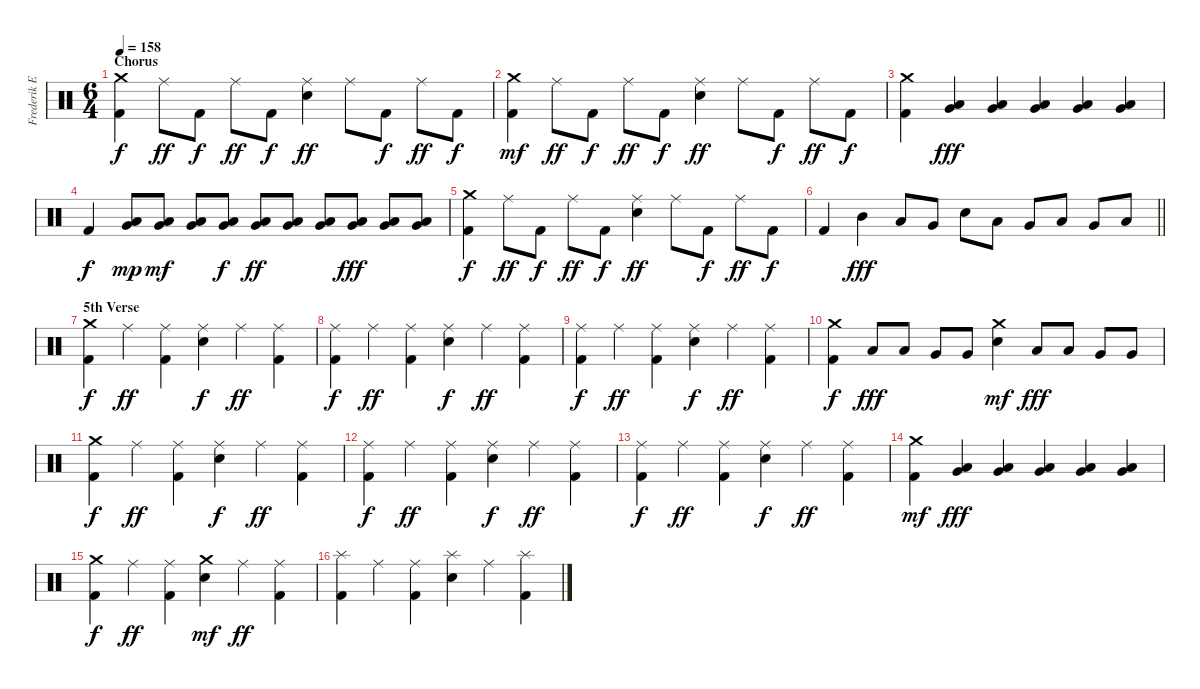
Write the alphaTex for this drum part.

\track ("Frederik Ehmke" "Frederik E") {instrument percussion}
\staff {score}
\articulation defaults
\ts (6 4)
\section ("" "Chorus")
\tempo 158
\clef neutral
\ks c
("Crash medium (hit)" "Kick (hit) 2").4{dy f} "Ride (middle)".8{dy ff} "Kick (hit) 2".8{dy f} "Ride (middle)".8{dy ff} "Kick (hit) 2".8{dy f} ("Ride (middle)" "Electric Snare (hit)").4{dy ff} "Ride (middle)".8 "Kick (hit) 2".8{dy f} "Ride (middle)".8{dy ff} "Kick (hit) 2".8{dy f} |
("Crash medium (hit)" "Kick (hit) 2").4{dy mf} "Ride (middle)".8{dy ff} "Kick (hit) 2".8{dy f} "Ride (middle)".8{dy ff} "Kick (hit) 2".8{dy f} ("Ride (middle)" "Electric Snare (hit)").4{dy ff} "Ride (middle)".8 "Kick (hit) 2".8{dy f} "Ride (middle)".8{dy ff} "Kick (hit) 2".8{dy f} |
("Crash medium (hit)" "Kick (hit) 2").4 ("Low Tom (hit)" "Very Low Tom (hit)").4{dy fff} ("Low Tom (hit)" "Very Low Tom (hit)").4 ("Low Tom (hit)" "Very Low Tom (hit)").4 ("Low Tom (hit)" "Very Low Tom (hit)").4 ("Low Tom (hit)" "Very Low Tom (hit)").4 |
"Kick (hit) 2".4{dy f} ("Low Tom (hit)" "Very Low Tom (hit)").8{dy mp} ("Low Tom (hit)" "Very Low Tom (hit)").8{dy mf} ("Low Tom (hit)" "Very Low Tom (hit)").8 ("Low Tom (hit)" "Very Low Tom (hit)").8{dy f} ("Low Tom (hit)" "Very Low Tom (hit)").8{dy ff} ("Low Tom (hit)" "Very Low Tom (hit)").8 ("Low Tom (hit)" "Very Low Tom (hit)").8 ("Low Tom (hit)" "Very Low Tom (hit)").8{dy fff} ("Low Tom (hit)" "Very Low Tom (hit)").8 ("Low Tom (hit)" "Very Low Tom (hit)").8 |
("Crash medium (hit)" "Kick (hit) 2").4{dy f} "Ride (middle)".8{dy ff} "Kick (hit) 2".8{dy f} "Ride (middle)".8{dy ff} "Kick (hit) 2".8{dy f} ("Ride (middle)" "Electric Snare (hit)").4{dy ff} "Ride (middle)".8 "Kick (hit) 2".8{dy f} "Ride (middle)".8{dy ff} "Kick (hit) 2".8{dy f} |
\barLineRight lightlight "Kick (hit) 2".4 "Mid Tom (hit)".4{dy fff} "Low Tom (hit)".8 "Very Low Tom (hit)".8 "Electric Snare (hit)".8 "Low Tom (hit)".8 "Very Low Tom (hit)".8 "Low Tom (hit)".8 "Very Low Tom (hit)".8 "Low Floor Tom (hit)".8
|
\section ("" "5th Verse")
("Crash medium (hit)" "Kick (hit) 2").4{dy f} "Ride (middle)".4{dy ff} ("Ride (middle)" "Kick (hit) 2").4 ("Ride (middle)" "Electric Snare (hit)").4{dy f} "Ride (middle)".4{dy ff} ("Ride (middle)" "Kick (hit) 2").4 |
("Ride (middle)" "Kick (hit) 2").4{dy f} "Ride (middle)".4{dy ff} ("Ride (middle)" "Kick (hit) 2").4 ("Ride (middle)" "Electric Snare (hit)").4{dy f} "Ride (middle)".4{dy ff} ("Ride (middle)" "Kick (hit) 2").4 |
("Ride (middle)" "Kick (hit) 2").4{dy f} "Ride (middle)".4{dy ff} ("Ride (middle)" "Kick (hit) 2").4 ("Ride (middle)" "Electric Snare (hit)").4{dy f} "Ride (middle)".4{dy ff} ("Ride (middle)" "Kick (hit) 2").4 |
("Crash medium (hit)" "Kick (hit) 2").4{dy f} "Low Tom (hit)".8{dy fff} "Low Tom (hit)".8 "Very Low Tom (hit)".8 "Very Low Tom (hit)".8 ("Crash medium (hit)" "Electric Snare (hit)").4{dy mf} "Low Tom (hit)".8{dy fff} "Low Tom (hit)".8 "Very Low Tom (hit)".8 "Very Low Tom (hit)".8 |
("Crash medium (hit)" "Kick (hit) 2").4{dy f} "Ride (middle)".4{dy ff} ("Ride (middle)" "Kick (hit) 2").4 ("Ride (middle)" "Electric Snare (hit)").4{dy f} "Ride (middle)".4{dy ff} ("Ride (middle)" "Kick (hit) 2").4 |
("Ride (middle)" "Kick (hit) 2").4{dy f} "Ride (middle)".4{dy ff} ("Ride (middle)" "Kick (hit) 2").4 ("Ride (middle)" "Electric Snare (hit)").4{dy f} "Ride (middle)".4{dy ff} ("Ride (middle)" "Kick (hit) 2").4 |
("Ride (middle)" "Kick (hit) 2").4{dy f} "Ride (middle)".4{dy ff} ("Ride (middle)" "Kick (hit) 2").4 ("Ride (middle)" "Electric Snare (hit)").4{dy f} "Ride (middle)".4{dy ff} ("Ride (middle)" "Kick (hit) 2").4 |
("Crash medium (hit)" "Kick (hit) 2").4{dy mf} ("Low Tom (hit)" "Very Low Tom (hit)").4{dy fff} ("Low Tom (hit)" "Very Low Tom (hit)").4 ("Low Tom (hit)" "Very Low Tom (hit)").4 ("Low Tom (hit)" "Very Low Tom (hit)").4 ("Low Tom (hit)" "Very Low Tom (hit)").4 |
("Crash medium (hit)" "Kick (hit) 2").4{dy f} "Ride (middle)".4{dy ff} ("Ride (middle)" "Kick (hit) 2").4 ("Crash medium (hit)" "Electric Snare (hit)").4{dy mf} "Ride (middle)".4{dy ff} ("Ride (middle)" "Kick (hit) 2").4 |
("Splash (hit)" "Kick (hit) 2").4 "Ride (middle)".4 ("Ride (middle)" "Kick (hit) 2").4 ("Splash (hit)" "Electric Snare (hit)").4 "Ride (middle)".4 ("Splash (hit)" "Kick (hit) 2").4
